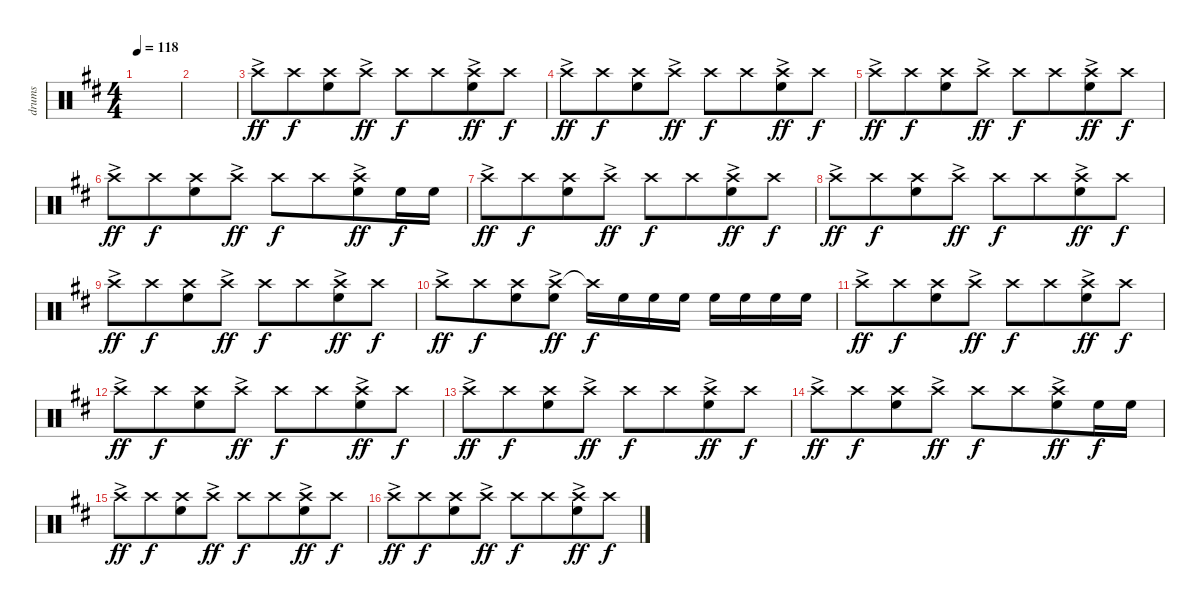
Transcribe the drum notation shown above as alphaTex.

\track ("drums" "drums") {instrument percussion}
\staff {score}
\articulation defaults
\ts (4 4)
\tempo 118
\clef neutral
\ks d
|
|
"Crash high (hit)"{ac}.8{dy ff} "Crash high (hit)".8{dy f beam merge} ("Crash high (hit)" "High Floor Tom (hit)").8 "Crash high (hit)"{ac}.8{dy ff} "Crash high (hit)".8{dy f} "Crash high (hit)".8{beam merge} ("Crash high (hit)"{ac} "High Floor Tom (hit)").8{dy ff} "Crash high (hit)".8{dy f} |
"Crash high (hit)"{ac}.8{dy ff} "Crash high (hit)".8{dy f beam merge} ("Crash high (hit)" "High Floor Tom (hit)").8 "Crash high (hit)"{ac}.8{dy ff} "Crash high (hit)".8{dy f} "Crash high (hit)".8{beam merge} ("Crash high (hit)"{ac} "High Floor Tom (hit)").8{dy ff} "Crash high (hit)".8{dy f} |
"Crash high (hit)"{ac}.8{dy ff} "Crash high (hit)".8{dy f beam merge} ("Crash high (hit)" "High Floor Tom (hit)").8 "Crash high (hit)"{ac}.8{dy ff} "Crash high (hit)".8{dy f} "Crash high (hit)".8{beam merge} ("Crash high (hit)"{ac} "High Floor Tom (hit)").8{dy ff} "Crash high (hit)".8{dy f} |
"Crash high (hit)"{ac}.8{dy ff} "Crash high (hit)".8{dy f beam merge} ("Crash high (hit)" "High Floor Tom (hit)").8 "Crash high (hit)"{ac}.8{dy ff} "Crash high (hit)".8{dy f} "Crash high (hit)".8{beam merge} ("Crash high (hit)"{ac} "High Floor Tom (hit)").8{dy ff} "High Floor Tom (hit)".16{dy f} "High Floor Tom (hit)".16 |
"Crash high (hit)"{ac}.8{dy ff} "Crash high (hit)".8{dy f beam merge} ("Crash high (hit)" "High Floor Tom (hit)").8 "Crash high (hit)"{ac}.8{dy ff} "Crash high (hit)".8{dy f} "Crash high (hit)".8{beam merge} ("Crash high (hit)"{ac} "High Floor Tom (hit)").8{dy ff} "Crash high (hit)".8{dy f} |
"Crash high (hit)"{ac}.8{dy ff} "Crash high (hit)".8{dy f beam merge} ("Crash high (hit)" "High Floor Tom (hit)").8 "Crash high (hit)"{ac}.8{dy ff} "Crash high (hit)".8{dy f} "Crash high (hit)".8{beam merge} ("Crash high (hit)"{ac} "High Floor Tom (hit)").8{dy ff} "Crash high (hit)".8{dy f} |
"Crash high (hit)"{ac}.8{dy ff} "Crash high (hit)".8{dy f beam merge} ("Crash high (hit)" "High Floor Tom (hit)").8 "Crash high (hit)"{ac}.8{dy ff} "Crash high (hit)".8{dy f} "Crash high (hit)".8{beam merge} ("Crash high (hit)"{ac} "High Floor Tom (hit)").8{dy ff} "Crash high (hit)".8{dy f} |
"Crash high (hit)"{ac}.8{dy ff} "Crash high (hit)".8{dy f beam merge} ("Crash high (hit)" "High Floor Tom (hit)").8 ("Crash high (hit)"{ac} "High Floor Tom (hit)").8{dy ff} "Crash high (hit)"{t}.16{dy f} "High Floor Tom (hit)".16 "High Floor Tom (hit)".16 "High Floor Tom (hit)".16 "High Floor Tom (hit)".16 "High Floor Tom (hit)".16 "High Floor Tom (hit)".16 "High Floor Tom (hit)".16 |
"Crash high (hit)"{ac}.8{dy ff} "Crash high (hit)".8{dy f beam merge} ("Crash high (hit)" "High Floor Tom (hit)").8 "Crash high (hit)"{ac}.8{dy ff} "Crash high (hit)".8{dy f} "Crash high (hit)".8{beam merge} ("Crash high (hit)"{ac} "High Floor Tom (hit)").8{dy ff} "Crash high (hit)".8{dy f} |
"Crash high (hit)"{ac}.8{dy ff} "Crash high (hit)".8{dy f beam merge} ("Crash high (hit)" "High Floor Tom (hit)").8 "Crash high (hit)"{ac}.8{dy ff} "Crash high (hit)".8{dy f} "Crash high (hit)".8{beam merge} ("Crash high (hit)"{ac} "High Floor Tom (hit)").8{dy ff} "Crash high (hit)".8{dy f} |
"Crash high (hit)"{ac}.8{dy ff} "Crash high (hit)".8{dy f beam merge} ("Crash high (hit)" "High Floor Tom (hit)").8 "Crash high (hit)"{ac}.8{dy ff} "Crash high (hit)".8{dy f} "Crash high (hit)".8{beam merge} ("Crash high (hit)"{ac} "High Floor Tom (hit)").8{dy ff} "Crash high (hit)".8{dy f} |
"Crash high (hit)"{ac}.8{dy ff} "Crash high (hit)".8{dy f beam merge} ("Crash high (hit)" "High Floor Tom (hit)").8 "Crash high (hit)"{ac}.8{dy ff} "Crash high (hit)".8{dy f} "Crash high (hit)".8{beam merge} ("Crash high (hit)"{ac} "High Floor Tom (hit)").8{dy ff} "High Floor Tom (hit)".16{dy f} "High Floor Tom (hit)".16 |
"Crash high (hit)"{ac}.8{dy ff} "Crash high (hit)".8{dy f beam merge} ("Crash high (hit)" "High Floor Tom (hit)").8 "Crash high (hit)"{ac}.8{dy ff} "Crash high (hit)".8{dy f} "Crash high (hit)".8{beam merge} ("Crash high (hit)"{ac} "High Floor Tom (hit)").8{dy ff} "Crash high (hit)".8{dy f} |
"Crash high (hit)"{ac}.8{dy ff} "Crash high (hit)".8{dy f beam merge} ("Crash high (hit)" "High Floor Tom (hit)").8 "Crash high (hit)"{ac}.8{dy ff} "Crash high (hit)".8{dy f} "Crash high (hit)".8{beam merge} ("Crash high (hit)"{ac} "High Floor Tom (hit)").8{dy ff} "Crash high (hit)".8{dy f}
